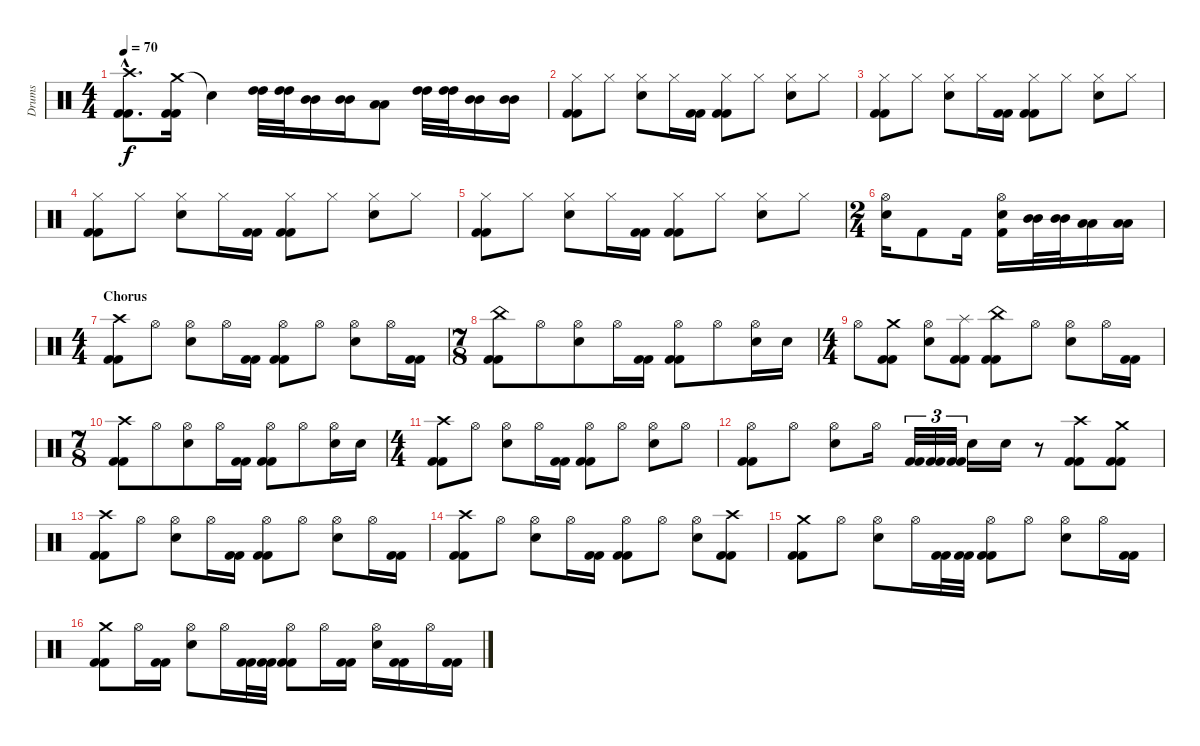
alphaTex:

\track ("Drums" "Drums") {instrument percussion}
\staff {score}
\articulation defaults
\ts (4 4)
\tempo 70
\clef neutral
\ks c
("Crash high (hit)"{hac} "Kick (hit) 2"{hac} "Kick (hit) 2"{hac}).8{d dy f} ("Crash medium (hit)" "Kick (hit) 2" "Kick (hit) 2").16 "Snare (hit)"{t}.4 ("High Tom (hit)" "High Tom (hit)").32 ("High Tom (hit)" "High Tom (hit)").32 ("Mid Tom (hit)" "Mid Tom (hit)").16 ("Mid Tom (hit)" "Mid Tom (hit)").16 ("Low Tom (hit)" "Low Tom (hit)").8 ("High Tom (hit)" "High Tom (hit)").32 ("High Tom (hit)" "High Tom (hit)").32 ("Mid Tom (hit)" "Mid Tom (hit)").16 ("Mid Tom (hit)" "Mid Tom (hit)").16 |
("Hi-Hat (closed)" "Kick (hit) 2" "Kick (hit) 2").8 "Hi-Hat (closed)".8 ("Hi-Hat (closed)" "Snare (hit) 2").8 "Hi-Hat (closed)".16 ("Kick (hit) 2" "Kick (hit) 2").16 ("Hi-Hat (closed)" "Kick (hit) 2" "Kick (hit) 2").8 "Hi-Hat (closed)".8 ("Hi-Hat (closed)" "Snare (hit) 2").8 "Hi-Hat (closed)".8 |
("Hi-Hat (closed)" "Kick (hit) 2" "Kick (hit) 2").8 "Hi-Hat (closed)".8 ("Hi-Hat (closed)" "Snare (hit) 2").8 "Hi-Hat (closed)".16 ("Kick (hit) 2" "Kick (hit) 2").16 ("Hi-Hat (closed)" "Kick (hit) 2" "Kick (hit) 2").8 "Hi-Hat (closed)".8 ("Hi-Hat (closed)" "Snare (hit) 2").8 "Hi-Hat (closed)".8 |
("Hi-Hat (closed)" "Kick (hit) 2" "Kick (hit) 2").8 "Hi-Hat (closed)".8 ("Hi-Hat (closed)" "Snare (hit) 2").8 "Hi-Hat (closed)".16 ("Kick (hit) 2" "Kick (hit) 2").16 ("Hi-Hat (closed)" "Kick (hit) 2" "Kick (hit) 2").8 "Hi-Hat (closed)".8 ("Hi-Hat (closed)" "Snare (hit) 2").8 "Hi-Hat (closed)".8 |
("Hi-Hat (closed)" "Kick (hit) 2" "Kick (hit) 2").8 "Hi-Hat (closed)".8 ("Hi-Hat (closed)" "Snare (hit) 2").8 "Hi-Hat (closed)".16 ("Kick (hit) 2" "Kick (hit) 2").16 ("Hi-Hat (closed)" "Kick (hit) 2" "Kick (hit) 2").8 "Hi-Hat (closed)".8 ("Hi-Hat (closed)" "Snare (hit) 2").8 "Hi-Hat (closed)".8 |
\ts (2 4)
("Hi-Hat (open)" "Snare (hit) 2").16 "Kick (hit) 2".8 "Kick (hit) 2".16 ("Hi-Hat (open)" "Snare (hit) 2" "Kick (hit) 2").16 ("Mid Tom (hit)" "Mid Tom (hit)").32 ("Mid Tom (hit)" "Mid Tom (hit)").32 ("Low Tom (hit)" "Low Tom (hit)").16 ("Low Tom (hit)" "Low Tom (hit)").16 |
\ts (4 4)
\section ("" "Chorus")
("Crash high (hit)" "Kick (hit) 2" "Kick (hit) 2").8 "Hi-Hat (open)".8 ("Hi-Hat (open)" "Snare (hit) 2").8 "Hi-Hat (open)".16 ("Kick (hit) 2" "Kick (hit) 2").16 ("Hi-Hat (open)" "Kick (hit) 2" "Kick (hit) 2").8 "Hi-Hat (open)".8 ("Hi-Hat (open)" "Snare (hit) 2").8 "Hi-Hat (open)".16 ("Kick (hit) 2" "Kick (hit) 2").16 |
\ts (7 8)
("China (hit)" "Kick (hit) 2" "Kick (hit) 2").8 "Hi-Hat (open)".8 ("Hi-Hat (open)" "Snare (hit) 2").8 "Hi-Hat (open)".16 ("Kick (hit) 2" "Kick (hit) 2").16 ("Hi-Hat (open)" "Kick (hit) 2" "Kick (hit) 2").8 "Hi-Hat (open)".8 ("Hi-Hat (open)" "Snare (hit) 2").16 "Snare (hit) 2".16 |
\ts (4 4)
"Hi-Hat (open)".8 ("Crash medium (hit)" "Kick (hit) 2" "Kick (hit) 2").8 ("Hi-Hat (open)" "Snare (hit) 2").8 ("Splash (hit)" "Kick (hit) 2" "Kick (hit) 2").8 ("China (hit)" "Kick (hit) 2" "Kick (hit) 2").8 "Hi-Hat (open)".8 ("Hi-Hat (open)" "Snare (hit) 2").8 "Hi-Hat (open)".16 ("Kick (hit) 2" "Kick (hit) 2").16 |
\ts (7 8)
("Crash high (hit)" "Kick (hit) 2" "Kick (hit) 2").8 "Hi-Hat (open)".8 ("Hi-Hat (open)" "Snare (hit) 2").8 "Hi-Hat (open)".16 ("Kick (hit) 2" "Kick (hit) 2").16 ("Hi-Hat (open)" "Kick (hit) 2" "Kick (hit) 2").8 "Hi-Hat (open)".8 ("Hi-Hat (open)" "Snare (hit) 2").16 "Snare (hit) 2".16 |
\ts (4 4)
("Crash high (hit)" "Kick (hit) 2" "Kick (hit) 2").8 "Hi-Hat (open)".8 ("Hi-Hat (open)" "Snare (hit) 2").8 "Hi-Hat (open)".16 ("Kick (hit) 2" "Kick (hit) 2").16 ("Hi-Hat (open)" "Kick (hit) 2" "Kick (hit) 2").8 "Hi-Hat (open)".8 ("Hi-Hat (open)" "Snare (hit) 2").8 "Hi-Hat (open)".8 |
("Hi-Hat (open)" "Kick (hit) 2" "Kick (hit) 2").8 "Hi-Hat (open)".8 ("Hi-Hat (open)" "Snare (hit) 2").8 "Hi-Hat (open)".16 ("Kick (hit) 2" "Kick (hit) 2").32{tu (3 2)} ("Kick (hit) 2" "Kick (hit) 2").32{tu (3 2)} ("Kick (hit) 2" "Kick (hit) 2").32{tu (3 2)} "Snare (hit) 2".16 "Snare (hit) 2".16 r.8 ("Crash high (hit)" "Kick (hit) 2" "Kick (hit) 2").8 ("Crash medium (hit)" "Kick (hit) 2" "Kick (hit) 2").8 |
("Crash high (hit)" "Kick (hit) 2" "Kick (hit) 2").8 "Hi-Hat (open)".8 ("Hi-Hat (open)" "Snare (hit) 2").8 "Hi-Hat (open)".16 ("Kick (hit) 2" "Kick (hit) 2").16 ("Hi-Hat (open)" "Kick (hit) 2" "Kick (hit) 2").8 "Hi-Hat (open)".8 ("Hi-Hat (open)" "Snare (hit) 2").8 "Hi-Hat (open)".16 ("Kick (hit) 2" "Kick (hit) 2").16 |
("Crash high (hit)" "Kick (hit) 2" "Kick (hit) 2").8 "Hi-Hat (open)".8 ("Hi-Hat (open)" "Snare (hit) 2").8 "Hi-Hat (open)".16 ("Kick (hit) 2" "Kick (hit) 2").16 ("Hi-Hat (open)" "Kick (hit) 2" "Kick (hit) 2").8 "Hi-Hat (open)".8 ("Hi-Hat (open)" "Snare (hit) 2").8 ("Crash high (hit)" "Kick (hit) 2" "Kick (hit) 2").8 |
("Crash medium (hit)" "Kick (hit) 2" "Kick (hit) 2").8 "Hi-Hat (open)".8 ("Hi-Hat (open)" "Snare (hit) 2").8 "Hi-Hat (open)".16 ("Kick (hit) 2" "Kick (hit) 2").32 ("Kick (hit) 2" "Kick (hit) 2").32 ("Hi-Hat (open)" "Kick (hit) 2" "Kick (hit) 2").8 "Hi-Hat (open)".8 ("Hi-Hat (open)" "Snare (hit) 2").8 "Hi-Hat (open)".16 ("Kick (hit) 2" "Kick (hit) 2").16 |
("Crash medium (hit)" "Kick (hit) 2" "Kick (hit) 2").8 "Hi-Hat (open)".16 ("Kick (hit) 2" "Kick (hit) 2").16 ("Hi-Hat (open)" "Snare (hit) 2").8 "Hi-Hat (open)".16 ("Kick (hit) 2" "Kick (hit) 2").32 ("Kick (hit) 2" "Kick (hit) 2").32 ("Hi-Hat (open)" "Kick (hit) 2" "Kick (hit) 2").8 "Hi-Hat (open)".16 ("Kick (hit) 2" "Kick (hit) 2").16 ("Hi-Hat (open)" "Snare (hit) 2").16 ("Kick (hit) 2" "Kick (hit) 2").16 "Hi-Hat (open)".16 ("Kick (hit) 2" "Kick (hit) 2").16
